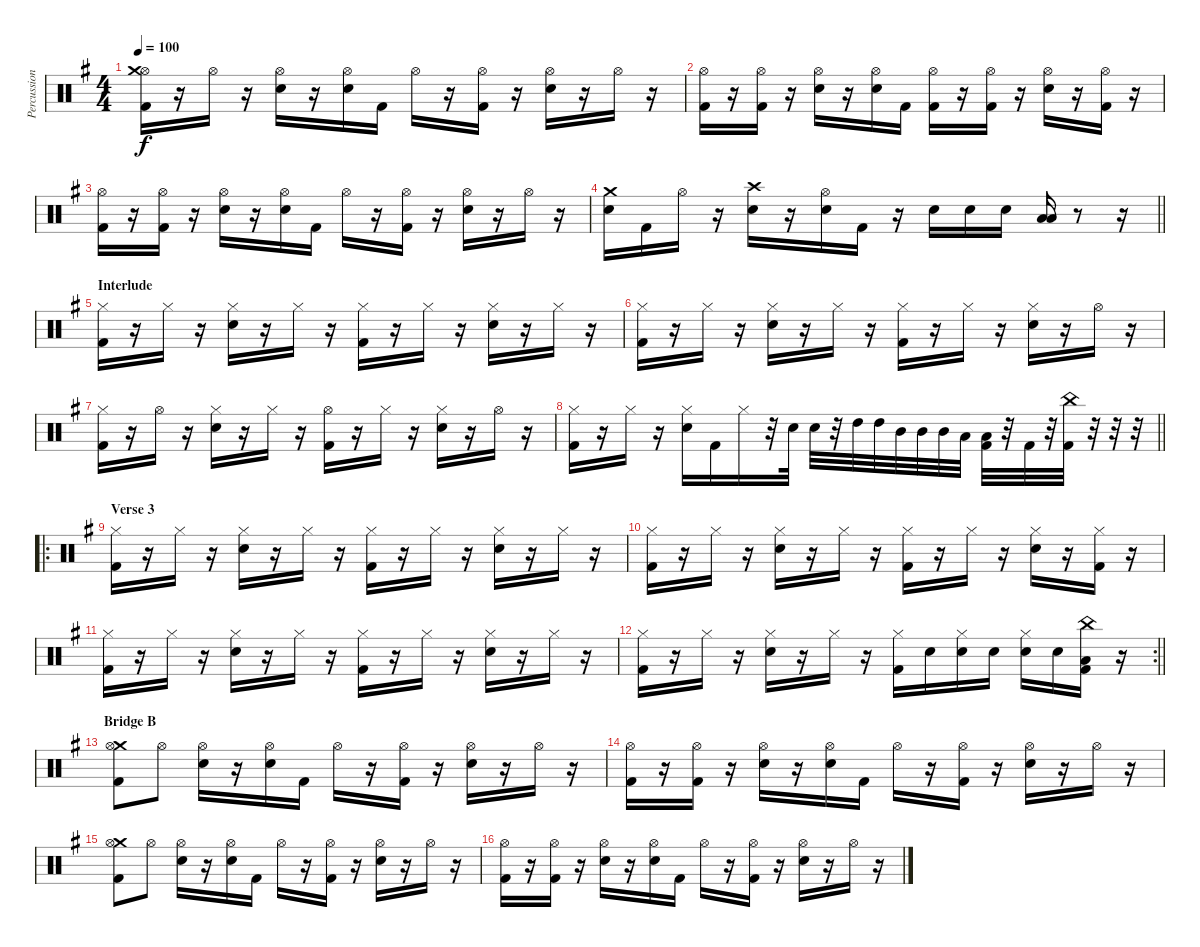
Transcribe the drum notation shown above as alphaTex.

\track ("Percussion" "Percussion") {instrument percussion}
\staff {score}
\articulation defaults
\ts (4 4)
\tempo 100
\clef neutral
\ks g
("Hi-Hat (open)" "Crash medium (hit)" "Kick (hit) 2").16{dy f} r.16 "Hi-Hat (open)".16 r.16 ("Hi-Hat (open)" "Snare (hit) 2").16 r.16 ("Hi-Hat (open)" "Snare (hit) 2").16 "Kick (hit) 2".16 "Hi-Hat (open)".16 r.16 ("Hi-Hat (open)" "Kick (hit) 2").16 r.16 ("Hi-Hat (open)" "Snare (hit) 2").16 r.16 "Hi-Hat (open)".16 r.16 |
("Hi-Hat (open)" "Kick (hit) 2").16 r.16 ("Hi-Hat (open)" "Kick (hit) 2").16 r.16 ("Hi-Hat (open)" "Snare (hit) 2").16 r.16 ("Hi-Hat (open)" "Snare (hit) 2").16 "Kick (hit) 2".16 ("Hi-Hat (open)" "Kick (hit) 2").16 r.16 ("Hi-Hat (open)" "Kick (hit) 2").16 r.16 ("Hi-Hat (open)" "Snare (hit) 2").16 r.16 ("Hi-Hat (open)" "Kick (hit) 2").16 r.16 |
("Hi-Hat (open)" "Kick (hit) 2").16 r.16 ("Hi-Hat (open)" "Kick (hit) 2").16 r.16 ("Hi-Hat (open)" "Snare (hit) 2").16 r.16 ("Hi-Hat (open)" "Snare (hit) 2").16 "Kick (hit) 2".16 "Hi-Hat (open)".16 r.16 ("Hi-Hat (open)" "Kick (hit) 2").16 r.16 ("Hi-Hat (open)" "Snare (hit) 2").16 r.16 "Hi-Hat (open)".16 r.16 |
\barLineRight lightlight
("Crash medium (hit)" "Snare (hit) 2").16 "Kick (hit) 2".16 "Hi-Hat (open)".16 r.16 ("Crash high (hit)" "Snare (hit) 2").16 r.16 ("Hi-Hat (open)" "Snare (hit) 2").16 "Kick (hit) 2".16 r.16 "Snare (hit) 2".16 "Snare (hit) 2".16 "Snare (hit) 2".16 ("Low Tom (hit)" "Low Tom (hit)").16 r.8 r.16 |
\section ("" "Interlude")
("Hi-Hat (closed)" "Kick (hit) 2").16 r.16 "Hi-Hat (closed)".16 r.16 ("Hi-Hat (closed)" "Snare (hit) 2").16 r.16 "Hi-Hat (closed)".16 r.16 ("Hi-Hat (closed)" "Kick (hit) 2").16 r.16 "Hi-Hat (closed)".16 r.16 ("Hi-Hat (closed)" "Snare (hit) 2").16 r.16 "Hi-Hat (closed)".16 r.16 |
("Hi-Hat (closed)" "Kick (hit) 2").16 r.16 "Hi-Hat (closed)".16 r.16 ("Hi-Hat (closed)" "Snare (hit) 2").16 r.16 "Hi-Hat (closed)".16 r.16 ("Hi-Hat (closed)" "Kick (hit) 2").16 r.16 "Hi-Hat (closed)".16 r.16 ("Hi-Hat (closed)" "Snare (hit) 2").16 r.16 "Hi-Hat (open)".16 r.16 |
("Hi-Hat (closed)" "Kick (hit) 2").16 r.16 "Hi-Hat (open)".16 r.16 ("Hi-Hat (closed)" "Snare (hit) 2").16 r.16 "Hi-Hat (closed)".16 r.16 ("Hi-Hat (open)" "Kick (hit) 2").16 r.16 "Hi-Hat (closed)".16 r.16 ("Hi-Hat (closed)" "Snare (hit) 2").16 r.16 "Hi-Hat (open)".16 r.16 |
\barLineRight lightlight
("Hi-Hat (closed)" "Kick (hit) 2").16 r.16 "Hi-Hat (closed)".16 r.16 ("Hi-Hat (closed)" "Snare (hit) 2").16 "Kick (hit) 2".16 "Hi-Hat (closed)".16 r.32 "Snare (hit) 2".32 "Snare (hit) 2".32 r.32 "High Tom (hit)".32 "High Tom (hit)".32 "Mid Tom (hit)".32 "Mid Tom (hit)".32 "Mid Tom (hit)".32 "Low Tom (hit)".32 ("Low Tom (hit)" "Kick (hit) 2").32 r.32 "Kick (hit) 2".32 r.32 ("China (hit)" "Kick (hit) 2").32 r.32 r.32 r.32 |
\ro
\section ("" "Verse 3")
("Hi-Hat (closed)" "Kick (hit) 2").16 r.16 "Hi-Hat (closed)".16 r.16 ("Hi-Hat (closed)" "Snare (hit) 2").16 r.16 "Hi-Hat (closed)".16 r.16 ("Hi-Hat (closed)" "Kick (hit) 2").16 r.16 "Hi-Hat (closed)".16 r.16 ("Hi-Hat (closed)" "Snare (hit) 2").16 r.16 "Hi-Hat (closed)".16 r.16 |
("Hi-Hat (closed)" "Kick (hit) 2").16 r.16 "Hi-Hat (closed)".16 r.16 ("Hi-Hat (closed)" "Snare (hit) 2").16 r.16 "Hi-Hat (closed)".16 r.16 ("Hi-Hat (closed)" "Kick (hit) 2").16 r.16 "Hi-Hat (closed)".16 r.16 ("Hi-Hat (closed)" "Snare (hit) 2").16 r.16 ("Hi-Hat (closed)" "Kick (hit) 2").16 r.16 |
("Hi-Hat (closed)" "Kick (hit) 2").16 r.16 "Hi-Hat (closed)".16 r.16 ("Hi-Hat (closed)" "Snare (hit) 2").16 r.16 "Hi-Hat (closed)".16 r.16 ("Hi-Hat (closed)" "Kick (hit) 2").16 r.16 "Hi-Hat (closed)".16 r.16 ("Hi-Hat (closed)" "Snare (hit) 2").16 r.16 "Hi-Hat (closed)".16 r.16 |
\rc 2
\barLineRight lightlight
("Hi-Hat (closed)" "Kick (hit) 2").16 r.16 "Hi-Hat (closed)".16 r.16 ("Hi-Hat (closed)" "Snare (hit) 2").16 r.16 "Hi-Hat (closed)".16 r.16 ("Hi-Hat (closed)" "Kick (hit) 2").16 "Snare (hit) 2".16 ("Hi-Hat (closed)" "Snare (hit) 2").16 "Snare (hit) 2".16 ("Hi-Hat (closed)" "Snare (hit) 2").16 "Snare (hit) 2".16 ("China (hit)" "Low Tom (hit)" "Kick (hit) 2").16 r.16 |
\section ("" "Bridge B")
("Crash medium (hit)" "Hi-Hat (open)" "Kick (hit) 2").8 "Hi-Hat (open)".8 ("Hi-Hat (open)" "Snare (hit) 2").16 r.16 ("Hi-Hat (open)" "Snare (hit) 2").16 "Kick (hit) 2".16 "Hi-Hat (open)".16 r.16 ("Hi-Hat (open)" "Kick (hit) 2").16 r.16 ("Hi-Hat (open)" "Snare (hit) 2").16 r.16 "Hi-Hat (open)".16 r.16 |
("Hi-Hat (open)" "Kick (hit) 2").16 r.16 ("Hi-Hat (open)" "Kick (hit) 2").16 r.16 ("Hi-Hat (open)" "Snare (hit) 2").16 r.16 ("Hi-Hat (open)" "Snare (hit) 2").16 "Kick (hit) 2".16 "Hi-Hat (open)".16 r.16 ("Hi-Hat (open)" "Kick (hit) 2").16 r.16 ("Hi-Hat (open)" "Snare (hit) 2").16 r.16 "Hi-Hat (open)".16 r.16 |
("Crash medium (hit)" "Hi-Hat (open)" "Kick (hit) 2").8 "Hi-Hat (open)".8 ("Hi-Hat (open)" "Snare (hit) 2").16 r.16 ("Hi-Hat (open)" "Snare (hit) 2").16 "Kick (hit) 2".16 "Hi-Hat (open)".16 r.16 ("Hi-Hat (open)" "Kick (hit) 2").16 r.16 ("Hi-Hat (open)" "Snare (hit) 2").16 r.16 "Hi-Hat (open)".16 r.16 |
("Hi-Hat (open)" "Kick (hit) 2").16 r.16 ("Hi-Hat (open)" "Kick (hit) 2").16 r.16 ("Hi-Hat (open)" "Snare (hit) 2").16 r.16 ("Hi-Hat (open)" "Snare (hit) 2").16 "Kick (hit) 2".16 "Hi-Hat (open)".16 r.16 ("Hi-Hat (open)" "Kick (hit) 2").16 r.16 ("Hi-Hat (open)" "Snare (hit) 2").16 r.16 "Hi-Hat (open)".16 r.16
